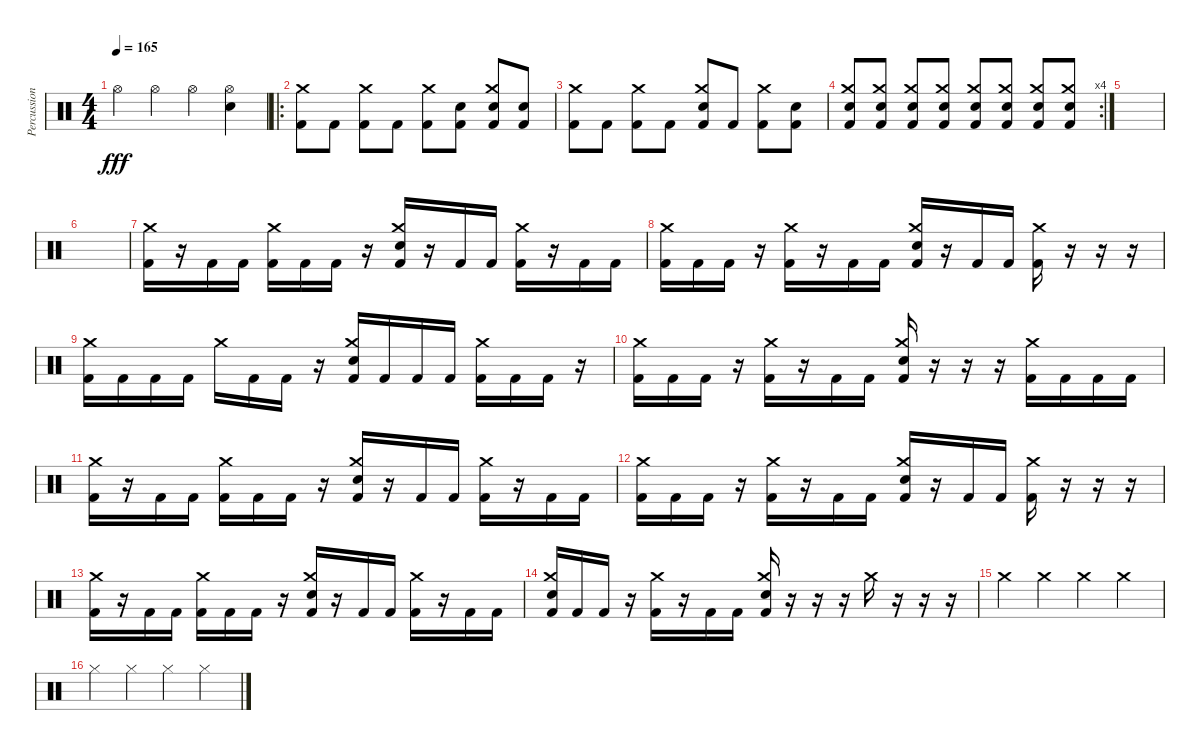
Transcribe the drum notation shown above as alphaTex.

\track ("Percussion" "Percussion") {instrument percussion}
\staff {score}
\articulation defaults
\ts (4 4)
\tempo 165
\clef neutral
\ks c "Hi-Hat (open)".4{dy fff} "Hi-Hat (open)".4 "Hi-Hat (open)".4
("Hi-Hat (open)" "Electric Snare (hit)").4 |
\ro
("Crash medium (hit)" "Kick (hit) 2").8 "Kick (hit) 2".8 ("Crash medium (hit)" "Kick (hit) 2").8 "Kick (hit) 2".8 ("Crash medium (hit)" "Kick (hit) 2").8 ("Electric Snare (hit)" "Kick (hit) 2").8 ("Crash medium (hit)" "Electric Snare (hit)" "Kick (hit) 2").8 ("Electric Snare (hit)" "Kick (hit) 2").8 |
("Crash medium (hit)" "Kick (hit) 2").8 "Kick (hit) 2".8 ("Crash medium (hit)" "Kick (hit) 2").8 "Kick (hit) 2".8 ("Crash medium (hit)" "Electric Snare (hit)" "Kick (hit) 2").8 "Kick (hit) 2".8 ("Crash medium (hit)" "Kick (hit) 2").8 ("Electric Snare (hit)" "Kick (hit) 2").8 |
\rc 4
("Crash medium (hit)" "Electric Snare (hit)" "Kick (hit) 2").8 ("Crash medium (hit)" "Electric Snare (hit)" "Kick (hit) 2").8 ("Crash medium (hit)" "Electric Snare (hit)" "Kick (hit) 2").8 ("Crash medium (hit)" "Electric Snare (hit)" "Kick (hit) 2").8 ("Crash medium (hit)" "Electric Snare (hit)" "Kick (hit) 2").8 ("Crash medium (hit)" "Electric Snare (hit)" "Kick (hit) 2").8 ("Crash medium (hit)" "Electric Snare (hit)" "Kick (hit) 2").8 ("Crash medium (hit)" "Electric Snare (hit)" "Kick (hit) 2").8 |
|
|
("Crash medium (hit)" "Kick (hit) 2").16 r.16 "Kick (hit) 2".16 "Kick (hit) 2".16 ("Crash medium (hit)" "Kick (hit) 2").16 "Kick (hit) 2".16 "Kick (hit) 2".16 r.16 ("Crash medium (hit)" "Electric Snare (hit)" "Kick (hit) 2").16 r.16 "Kick (hit) 2".16 "Kick (hit) 2".16 ("Crash medium (hit)" "Kick (hit) 2").16 r.16 "Kick (hit) 2".16 "Kick (hit) 2".16 |
("Crash medium (hit)" "Kick (hit) 2").16 "Kick (hit) 2".16 "Kick (hit) 2".16 r.16 ("Crash medium (hit)" "Kick (hit) 2").16 r.16 "Kick (hit) 2".16 "Kick (hit) 2".16 ("Crash medium (hit)" "Electric Snare (hit)" "Kick (hit) 2").16 r.16 "Kick (hit) 2".16 "Kick (hit) 2".16 ("Crash medium (hit)" "Kick (hit) 2").16 r.16 r.16 r.16 |
("Crash medium (hit)" "Kick (hit) 2").16 "Kick (hit) 2".16 "Kick (hit) 2".16 "Kick (hit) 2".16 "Crash medium (hit)".16 "Kick (hit) 2".16 "Kick (hit) 2".16 r.16 ("Crash medium (hit)" "Electric Snare (hit)" "Kick (hit) 2").16 "Kick (hit) 2".16 "Kick (hit) 2".16 "Kick (hit) 2".16 ("Crash medium (hit)" "Kick (hit) 2").16 "Kick (hit) 2".16 "Kick (hit) 2".16 r.16 |
("Crash medium (hit)" "Kick (hit) 2").16 "Kick (hit) 2".16 "Kick (hit) 2".16 r.16 ("Crash medium (hit)" "Kick (hit) 2").16 r.16 "Kick (hit) 2".16 "Kick (hit) 2".16 ("Crash medium (hit)" "Electric Snare (hit)" "Kick (hit) 2").16 r.16 r.16 r.16 ("Crash medium (hit)" "Kick (hit) 2").16 "Kick (hit) 2".16 "Kick (hit) 2".16 "Kick (hit) 2".16 |
("Crash medium (hit)" "Kick (hit) 2").16 r.16 "Kick (hit) 2".16 "Kick (hit) 2".16 ("Crash medium (hit)" "Kick (hit) 2").16 "Kick (hit) 2".16 "Kick (hit) 2".16 r.16 ("Crash medium (hit)" "Electric Snare (hit)" "Kick (hit) 2").16 r.16 "Kick (hit) 2".16 "Kick (hit) 2".16 ("Crash medium (hit)" "Kick (hit) 2").16 r.16 "Kick (hit) 2".16 "Kick (hit) 2".16 |
("Crash medium (hit)" "Kick (hit) 2").16 "Kick (hit) 2".16 "Kick (hit) 2".16 r.16 ("Crash medium (hit)" "Kick (hit) 2").16 r.16 "Kick (hit) 2".16 "Kick (hit) 2".16 ("Crash medium (hit)" "Electric Snare (hit)" "Kick (hit) 2").16 r.16 "Kick (hit) 2".16 "Kick (hit) 2".16 ("Crash medium (hit)" "Kick (hit) 2").16 r.16 r.16 r.16 |
("Crash medium (hit)" "Kick (hit) 2").16 r.16 "Kick (hit) 2".16 "Kick (hit) 2".16 ("Crash medium (hit)" "Kick (hit) 2").16 "Kick (hit) 2".16 "Kick (hit) 2".16 r.16 ("Crash medium (hit)" "Electric Snare (hit)" "Kick (hit) 2").16 r.16 "Kick (hit) 2".16 "Kick (hit) 2".16 ("Crash medium (hit)" "Kick (hit) 2").16 r.16 "Kick (hit) 2".16 "Kick (hit) 2".16 |
("Crash medium (hit)" "Electric Snare (hit)" "Kick (hit) 2").16 "Kick (hit) 2".16 "Kick (hit) 2".16 r.16 ("Crash medium (hit)" "Kick (hit) 2").16 r.16 "Kick (hit) 2".16 "Kick (hit) 2".16 ("Crash medium (hit)" "Electric Snare (hit)" "Kick (hit) 2").16 r.16 r.16 r.16 "Crash medium (hit)".16 r.16 r.16 r.16 |
"Crash medium (hit)".4 "Crash medium (hit)".4 "Crash medium (hit)".4 "Crash medium (hit)".4 |
"Hi-Hat (closed)".4 "Hi-Hat (closed)".4 "Hi-Hat (closed)".4 "Hi-Hat (closed)".4
